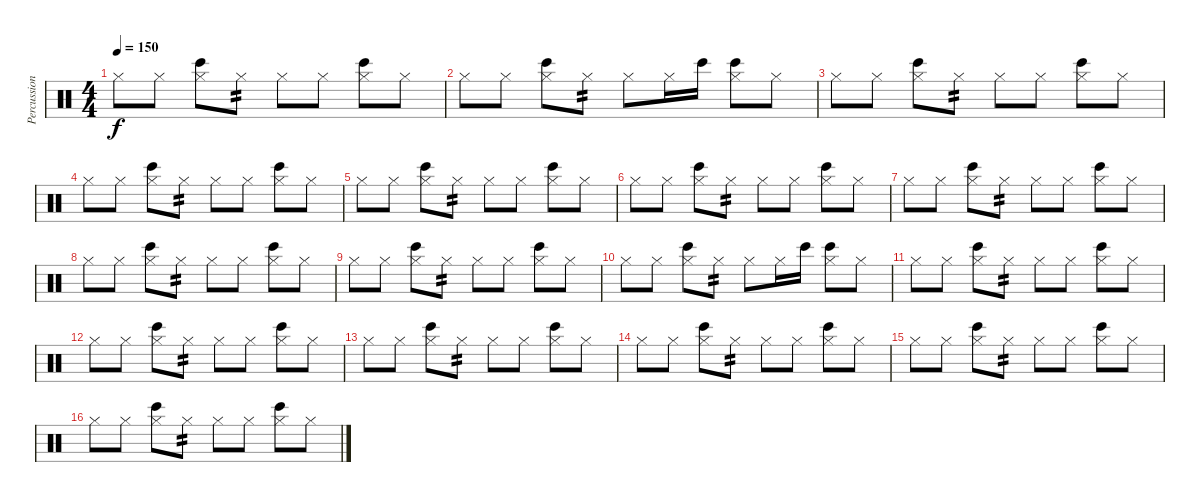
\track ("Percussion" "Percussion") {instrument percussion}
\staff {score}
\articulation defaults
\ts (4 4)
\tempo 150
\clef neutral
\ks c "Hi-Hat (closed)".8{dy f} "Hi-Hat (closed)".8
("Hi-Hat (closed)" "Bongo High (hit)").8 "Hi-Hat (closed)".8{tp 2} "Hi-Hat (closed)".8 "Hi-Hat (closed)".8 ("Hi-Hat (closed)" "Bongo High (hit)").8 "Hi-Hat (closed)".8 |
"Hi-Hat (closed)".8 "Hi-Hat (closed)".8 ("Hi-Hat (closed)" "Bongo High (hit)").8 "Hi-Hat (closed)".8{tp 2} "Hi-Hat (closed)".8 "Hi-Hat (closed)".16 "Bongo High (hit)".16 ("Hi-Hat (closed)" "Bongo High (hit)").8 "Hi-Hat (closed)".8 |
"Hi-Hat (closed)".8 "Hi-Hat (closed)".8 ("Hi-Hat (closed)" "Bongo High (hit)").8 "Hi-Hat (closed)".8{tp 2} "Hi-Hat (closed)".8 "Hi-Hat (closed)".8 ("Hi-Hat (closed)" "Bongo High (hit)").8 "Hi-Hat (closed)".8 |
"Hi-Hat (closed)".8 "Hi-Hat (closed)".8 ("Hi-Hat (closed)" "Bongo High (hit)").8 "Hi-Hat (closed)".8{tp 2} "Hi-Hat (closed)".8 "Hi-Hat (closed)".8 ("Hi-Hat (closed)" "Bongo High (hit)").8 "Hi-Hat (closed)".8 |
"Hi-Hat (closed)".8 "Hi-Hat (closed)".8 ("Hi-Hat (closed)" "Bongo High (hit)").8 "Hi-Hat (closed)".8{tp 2} "Hi-Hat (closed)".8 "Hi-Hat (closed)".8 ("Hi-Hat (closed)" "Bongo High (hit)").8 "Hi-Hat (closed)".8 |
"Hi-Hat (closed)".8 "Hi-Hat (closed)".8 ("Hi-Hat (closed)" "Bongo High (hit)").8 "Hi-Hat (closed)".8{tp 2} "Hi-Hat (closed)".8 "Hi-Hat (closed)".8 ("Hi-Hat (closed)" "Bongo High (hit)").8 "Hi-Hat (closed)".8 |
"Hi-Hat (closed)".8 "Hi-Hat (closed)".8 ("Hi-Hat (closed)" "Bongo High (hit)").8 "Hi-Hat (closed)".8{tp 2} "Hi-Hat (closed)".8 "Hi-Hat (closed)".8 ("Hi-Hat (closed)" "Bongo High (hit)").8 "Hi-Hat (closed)".8 |
"Hi-Hat (closed)".8 "Hi-Hat (closed)".8 ("Hi-Hat (closed)" "Bongo High (hit)").8 "Hi-Hat (closed)".8{tp 2} "Hi-Hat (closed)".8 "Hi-Hat (closed)".8 ("Hi-Hat (closed)" "Bongo High (hit)").8 "Hi-Hat (closed)".8 |
"Hi-Hat (closed)".8 "Hi-Hat (closed)".8 ("Hi-Hat (closed)" "Bongo High (hit)").8 "Hi-Hat (closed)".8{tp 2} "Hi-Hat (closed)".8 "Hi-Hat (closed)".8 ("Hi-Hat (closed)" "Bongo High (hit)").8 "Hi-Hat (closed)".8 |
"Hi-Hat (closed)".8 "Hi-Hat (closed)".8 ("Hi-Hat (closed)" "Bongo High (hit)").8 "Hi-Hat (closed)".8{tp 2} "Hi-Hat (closed)".8 "Hi-Hat (closed)".16 "Bongo High (hit)".16 ("Hi-Hat (closed)" "Bongo High (hit)").8 "Hi-Hat (closed)".8 |
"Hi-Hat (closed)".8 "Hi-Hat (closed)".8 ("Hi-Hat (closed)" "Bongo High (hit)").8 "Hi-Hat (closed)".8{tp 2} "Hi-Hat (closed)".8 "Hi-Hat (closed)".8 ("Hi-Hat (closed)" "Bongo High (hit)").8 "Hi-Hat (closed)".8 |
"Hi-Hat (closed)".8 "Hi-Hat (closed)".8 ("Hi-Hat (closed)" "Bongo High (hit)").8 "Hi-Hat (closed)".8{tp 2} "Hi-Hat (closed)".8 "Hi-Hat (closed)".8 ("Hi-Hat (closed)" "Bongo High (hit)").8 "Hi-Hat (closed)".8 |
"Hi-Hat (closed)".8 "Hi-Hat (closed)".8 ("Hi-Hat (closed)" "Bongo High (hit)").8 "Hi-Hat (closed)".8{tp 2} "Hi-Hat (closed)".8 "Hi-Hat (closed)".8 ("Hi-Hat (closed)" "Bongo High (hit)").8 "Hi-Hat (closed)".8 |
"Hi-Hat (closed)".8 "Hi-Hat (closed)".8 ("Hi-Hat (closed)" "Bongo High (hit)").8 "Hi-Hat (closed)".8{tp 2} "Hi-Hat (closed)".8 "Hi-Hat (closed)".8 ("Hi-Hat (closed)" "Bongo High (hit)").8 "Hi-Hat (closed)".8 |
"Hi-Hat (closed)".8 "Hi-Hat (closed)".8 ("Hi-Hat (closed)" "Bongo High (hit)").8 "Hi-Hat (closed)".8{tp 2} "Hi-Hat (closed)".8 "Hi-Hat (closed)".8 ("Hi-Hat (closed)" "Bongo High (hit)").8 "Hi-Hat (closed)".8 |
"Hi-Hat (closed)".8 "Hi-Hat (closed)".8 ("Hi-Hat (closed)" "Bongo High (hit)").8 "Hi-Hat (closed)".8{tp 2} "Hi-Hat (closed)".8 "Hi-Hat (closed)".8 ("Hi-Hat (closed)" "Bongo High (hit)").8 "Hi-Hat (closed)".8
